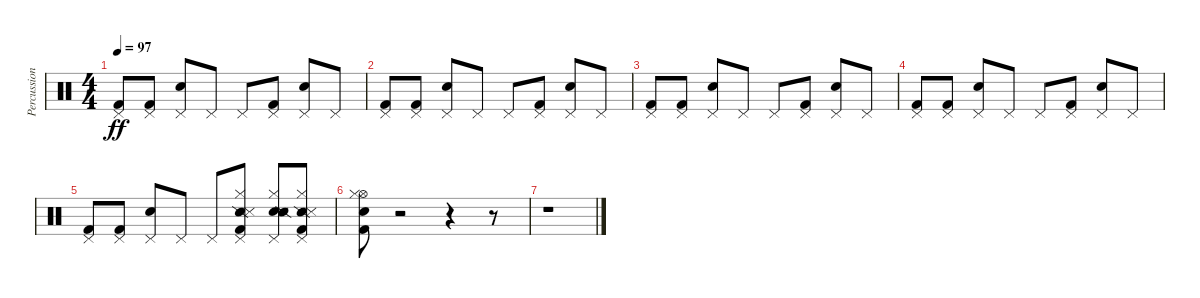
\track ("Percussion" "Percussion") {instrument percussion}
\staff {score}
\articulation defaults
\ts (4 4)
\tempo 97
\clef neutral
\ks c
("Pedal Hi-Hat (hit)" "Kick (hit) 2").8{dy ff} ("Kick (hit) 2" "Pedal Hi-Hat (hit)").8 ("Electric Snare (hit)" "Pedal Hi-Hat (hit)").8 "Pedal Hi-Hat (hit)".8 "Pedal Hi-Hat (hit)".8 ("Kick (hit) 2" "Pedal Hi-Hat (hit)").8 ("Electric Snare (hit)" "Pedal Hi-Hat (hit)").8 "Pedal Hi-Hat (hit)".8 |
("Kick (hit) 2" "Pedal Hi-Hat (hit)").8 ("Kick (hit) 2" "Pedal Hi-Hat (hit)").8 ("Electric Snare (hit)" "Pedal Hi-Hat (hit)").8 "Pedal Hi-Hat (hit)".8 "Pedal Hi-Hat (hit)".8 ("Kick (hit) 2" "Pedal Hi-Hat (hit)").8 ("Electric Snare (hit)" "Pedal Hi-Hat (hit)").8 "Pedal Hi-Hat (hit)".8 |
("Kick (hit) 2" "Pedal Hi-Hat (hit)").8 ("Kick (hit) 2" "Pedal Hi-Hat (hit)").8 ("Electric Snare (hit)" "Pedal Hi-Hat (hit)").8 "Pedal Hi-Hat (hit)".8 "Pedal Hi-Hat (hit)".8 ("Kick (hit) 2" "Pedal Hi-Hat (hit)").8 ("Electric Snare (hit)" "Pedal Hi-Hat (hit)").8 "Pedal Hi-Hat (hit)".8 |
("Kick (hit) 2" "Pedal Hi-Hat (hit)").8 ("Kick (hit) 2" "Pedal Hi-Hat (hit)").8 ("Electric Snare (hit)" "Pedal Hi-Hat (hit)").8 "Pedal Hi-Hat (hit)".8 "Pedal Hi-Hat (hit)".8 ("Kick (hit) 2" "Pedal Hi-Hat (hit)").8 ("Electric Snare (hit)" "Pedal Hi-Hat (hit)").8 "Pedal Hi-Hat (hit)".8 |
("Kick (hit) 2" "Pedal Hi-Hat (hit)").8 ("Kick (hit) 2" "Pedal Hi-Hat (hit)").8 ("Electric Snare (hit)" "Pedal Hi-Hat (hit)").8 "Pedal Hi-Hat (hit)".8 "Pedal Hi-Hat (hit)".8 ("Kick (hit) 2" "Pedal Hi-Hat (hit)" "Hi-Hat (closed)" "Snare (side stick) 2" "Snare (side stick) 3").8 ("Electric Snare (hit)" "Pedal Hi-Hat (hit)" "Hi-Hat (closed)" "Snare (side stick) 2" "Snare (side stick) 3").8 ("Pedal Hi-Hat (hit)" "Hi-Hat (closed)" "Snare (side stick) 2" "Kick (hit) 2" "Snare (side stick) 3").8 |
("Hi-Hat (open)" "Kick (hit) 2" "Hi-Hat (closed)" "Electric Snare (hit)").8 r.2 r.4 r.8 |
r.1
